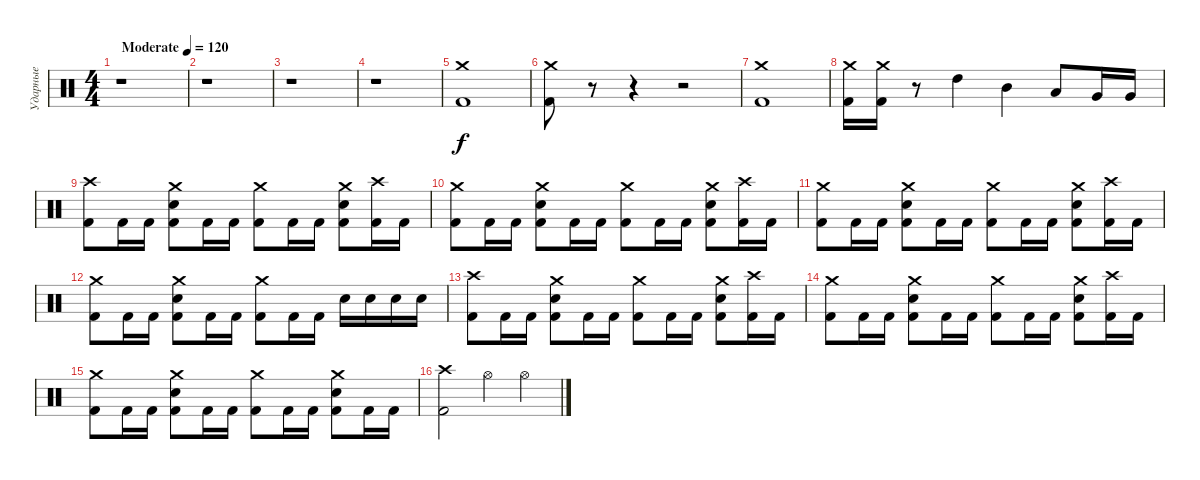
\track ("Ударные" "Ударные") {instrument percussion}
\staff {score}
\articulation defaults
\ts (4 4)
\tempo (120 "Moderate")
\clef neutral
\ks c
r.1{dy f} |
r.1 |
r.1 |
r.1 |
("Crash medium (hit)" "Kick (hit) 2").1 |
("Crash medium (hit)" "Kick (hit) 2").8 r.8 r.4 r.2 |
("Crash medium (hit)" "Kick (hit) 2").1 |
("Crash medium (hit)" "Kick (hit) 2").16 ("Crash medium (hit)" "Kick (hit) 2").16 r.8 "High Tom (hit)".4 "Mid Tom (hit)".4 "Low Tom (hit)".8 "Very Low Tom (hit)".16 "Very Low Tom (hit)".16 |
("Crash high (hit)" "Kick (hit) 2").8 "Kick (hit) 2".16 "Kick (hit) 2".16 ("Crash medium (hit)" "Electric Snare (hit)" "Kick (hit) 2").8 "Kick (hit) 2".16 "Kick (hit) 2".16 ("Crash medium (hit)" "Kick (hit) 2").8 "Kick (hit) 2".16 "Kick (hit) 2".16 ("Crash medium (hit)" "Electric Snare (hit)" "Kick (hit) 2").8 ("Crash high (hit)" "Kick (hit) 2").16 "Kick (hit) 2".16 |
("Crash medium (hit)" "Kick (hit) 2").8 "Kick (hit) 2".16 "Kick (hit) 2".16 ("Crash medium (hit)" "Electric Snare (hit)" "Kick (hit) 2").8 "Kick (hit) 2".16 "Kick (hit) 2".16 ("Crash medium (hit)" "Kick (hit) 2").8 "Kick (hit) 2".16 "Kick (hit) 2".16 ("Crash medium (hit)" "Electric Snare (hit)" "Kick (hit) 2").8 ("Crash high (hit)" "Kick (hit) 2").16 "Kick (hit) 2".16 |
("Crash medium (hit)" "Kick (hit) 2").8 "Kick (hit) 2".16 "Kick (hit) 2".16 ("Crash medium (hit)" "Electric Snare (hit)" "Kick (hit) 2").8 "Kick (hit) 2".16 "Kick (hit) 2".16 ("Crash medium (hit)" "Kick (hit) 2").8 "Kick (hit) 2".16 "Kick (hit) 2".16 ("Crash medium (hit)" "Electric Snare (hit)" "Kick (hit) 2").8 ("Crash high (hit)" "Kick (hit) 2").16 "Kick (hit) 2".16 |
("Crash medium (hit)" "Kick (hit) 2").8 "Kick (hit) 2".16 "Kick (hit) 2".16 ("Crash medium (hit)" "Electric Snare (hit)" "Kick (hit) 2").8 "Kick (hit) 2".16 "Kick (hit) 2".16 ("Crash medium (hit)" "Kick (hit) 2").8 "Kick (hit) 2".16 "Kick (hit) 2".16 "Electric Snare (hit)".16 "Electric Snare (hit)".16 "Electric Snare (hit)".16 "Electric Snare (hit)".16 |
("Crash high (hit)" "Kick (hit) 2").8 "Kick (hit) 2".16 "Kick (hit) 2".16 ("Crash medium (hit)" "Electric Snare (hit)" "Kick (hit) 2").8 "Kick (hit) 2".16 "Kick (hit) 2".16 ("Crash medium (hit)" "Kick (hit) 2").8 "Kick (hit) 2".16 "Kick (hit) 2".16 ("Crash medium (hit)" "Electric Snare (hit)" "Kick (hit) 2").8 ("Crash high (hit)" "Kick (hit) 2").16 "Kick (hit) 2".16 |
("Crash medium (hit)" "Kick (hit) 2").8 "Kick (hit) 2".16 "Kick (hit) 2".16 ("Crash medium (hit)" "Electric Snare (hit)" "Kick (hit) 2").8 "Kick (hit) 2".16 "Kick (hit) 2".16 ("Crash medium (hit)" "Kick (hit) 2").8 "Kick (hit) 2".16 "Kick (hit) 2".16 ("Crash medium (hit)" "Electric Snare (hit)" "Kick (hit) 2").8 ("Crash high (hit)" "Kick (hit) 2").16 "Kick (hit) 2".16 |
("Crash medium (hit)" "Kick (hit) 2").8 "Kick (hit) 2".16 "Kick (hit) 2".16 ("Crash medium (hit)" "Electric Snare (hit)" "Kick (hit) 2").8 "Kick (hit) 2".16 "Kick (hit) 2".16 ("Crash medium (hit)" "Kick (hit) 2").8 "Kick (hit) 2".16 "Kick (hit) 2".16 ("Crash medium (hit)" "Electric Snare (hit)" "Kick (hit) 2").8 "Kick (hit) 2".16 "Kick (hit) 2".16 |
("Crash high (hit)" "Kick (hit) 2").2 "Hi-Hat (open)".4 "Hi-Hat (open)".4
